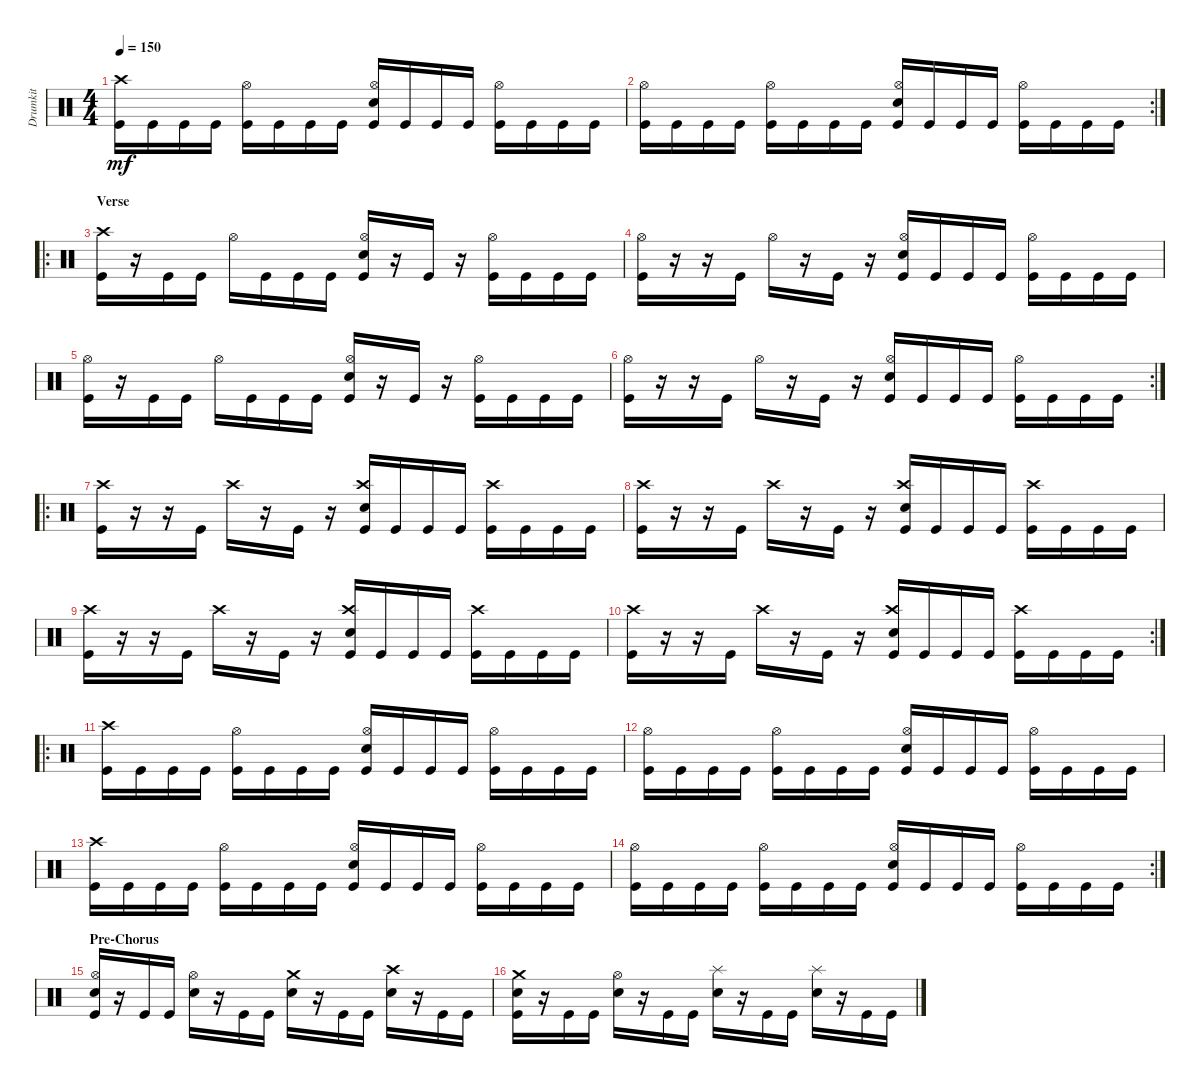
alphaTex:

\track ("Drumkit" "Drumkit") {instrument percussion}
\staff {score}
\articulation defaults
\ts (4 4)
\tempo 150
\clef neutral
\ks c
("Kick (hit)" "Crash high (hit)").16{dy mf} "Kick (hit)".16 "Kick (hit)".16 "Kick (hit)".16 ("Kick (hit)" "Hi-Hat (open)").16 "Kick (hit)".16 "Kick (hit)".16 "Kick (hit)".16 ("Kick (hit)" "Hi-Hat (open)" "Snare (hit) 2").16 "Kick (hit)".16 "Kick (hit)".16 "Kick (hit)".16 ("Kick (hit)" "Hi-Hat (open)").16 "Kick (hit)".16 "Kick (hit)".16 "Kick (hit)".16 |
\rc 2
("Kick (hit)" "Hi-Hat (open)").16 "Kick (hit)".16 "Kick (hit)".16 "Kick (hit)".16 ("Kick (hit)" "Hi-Hat (open)").16 "Kick (hit)".16 "Kick (hit)".16 "Kick (hit)".16 ("Kick (hit)" "Hi-Hat (open)" "Snare (hit) 2").16 "Kick (hit)".16 "Kick (hit)".16 "Kick (hit)".16 ("Kick (hit)" "Hi-Hat (open)").16 "Kick (hit)".16 "Kick (hit)".16 "Kick (hit)".16 |
\ro
\section ("" "Verse")
("Kick (hit)" "Crash high (hit)").16 r.16 "Kick (hit)".16 "Kick (hit)".16 "Hi-Hat (open)".16 "Kick (hit)".16 "Kick (hit)".16 "Kick (hit)".16 ("Kick (hit)" "Snare (hit) 2" "Hi-Hat (open)").16 r.16 "Kick (hit)".16 r.16 ("Kick (hit)" "Hi-Hat (open)").16 "Kick (hit)".16 "Kick (hit)".16 "Kick (hit)".16 |
("Kick (hit)" "Hi-Hat (open)").16 r.16 r.16 "Kick (hit)".16 "Hi-Hat (open)".16 r.16 "Kick (hit)".16 r.16 ("Snare (hit) 2" "Kick (hit)" "Hi-Hat (open)").16 "Kick (hit)".16 "Kick (hit)".16 "Kick (hit)".16 ("Kick (hit)" "Hi-Hat (open)").16 "Kick (hit)".16 "Kick (hit)".16 "Kick (hit)".16 |
("Kick (hit)" "Hi-Hat (open)").16 r.16 "Kick (hit)".16 "Kick (hit)".16 "Hi-Hat (open)".16 "Kick (hit)".16 "Kick (hit)".16 "Kick (hit)".16 ("Kick (hit)" "Snare (hit) 2" "Hi-Hat (open)").16 r.16 "Kick (hit)".16 r.16 ("Kick (hit)" "Hi-Hat (open)").16 "Kick (hit)".16 "Kick (hit)".16 "Kick (hit)".16 |
\rc 2
("Kick (hit)" "Hi-Hat (open)").16 r.16 r.16 "Kick (hit)".16 "Hi-Hat (open)".16 r.16 "Kick (hit)".16 r.16 ("Snare (hit) 2" "Kick (hit)" "Hi-Hat (open)").16 "Kick (hit)".16 "Kick (hit)".16 "Kick (hit)".16 ("Kick (hit)" "Hi-Hat (open)").16 "Kick (hit)".16 "Kick (hit)".16 "Kick (hit)".16 |
\ro
("Kick (hit)" "Crash high (hit)").16 r.16 r.16 "Kick (hit)".16 "Crash high (hit)".16 r.16 "Kick (hit)".16 r.16 ("Snare (hit) 2" "Kick (hit)" "Crash high (hit)").16 "Kick (hit)".16 "Kick (hit)".16 "Kick (hit)".16 ("Crash high (hit)" "Kick (hit)").16 "Kick (hit)".16 "Kick (hit)".16 "Kick (hit)".16 |
("Kick (hit)" "Crash high (hit)").16 r.16 r.16 "Kick (hit)".16 "Crash high (hit)".16 r.16 "Kick (hit)".16 r.16 ("Snare (hit) 2" "Kick (hit)" "Crash high (hit)").16 "Kick (hit)".16 "Kick (hit)".16 "Kick (hit)".16 ("Crash high (hit)" "Kick (hit)").16 "Kick (hit)".16 "Kick (hit)".16 "Kick (hit)".16 |
("Kick (hit)" "Crash high (hit)").16 r.16 r.16 "Kick (hit)".16 "Crash high (hit)".16 r.16 "Kick (hit)".16 r.16 ("Snare (hit) 2" "Kick (hit)" "Crash high (hit)").16 "Kick (hit)".16 "Kick (hit)".16 "Kick (hit)".16 ("Crash high (hit)" "Kick (hit)").16 "Kick (hit)".16 "Kick (hit)".16 "Kick (hit)".16 |
\rc 2
("Kick (hit)" "Crash high (hit)").16 r.16 r.16 "Kick (hit)".16 "Crash high (hit)".16 r.16 "Kick (hit)".16 r.16 ("Snare (hit) 2" "Kick (hit)" "Crash high (hit)").16 "Kick (hit)".16 "Kick (hit)".16 "Kick (hit)".16 ("Crash high (hit)" "Kick (hit)").16 "Kick (hit)".16 "Kick (hit)".16 "Kick (hit)".16 |
\ro
("Kick (hit)" "Crash high (hit)").16 "Kick (hit)".16 "Kick (hit)".16 "Kick (hit)".16 ("Kick (hit)" "Hi-Hat (open)").16 "Kick (hit)".16 "Kick (hit)".16 "Kick (hit)".16 ("Kick (hit)" "Hi-Hat (open)" "Snare (hit) 2").16 "Kick (hit)".16 "Kick (hit)".16 "Kick (hit)".16 ("Kick (hit)" "Hi-Hat (open)").16 "Kick (hit)".16 "Kick (hit)".16 "Kick (hit)".16 |
("Kick (hit)" "Hi-Hat (open)").16 "Kick (hit)".16 "Kick (hit)".16 "Kick (hit)".16 ("Kick (hit)" "Hi-Hat (open)").16 "Kick (hit)".16 "Kick (hit)".16 "Kick (hit)".16 ("Kick (hit)" "Hi-Hat (open)" "Snare (hit) 2").16 "Kick (hit)".16 "Kick (hit)".16 "Kick (hit)".16 ("Kick (hit)" "Hi-Hat (open)").16 "Kick (hit)".16 "Kick (hit)".16 "Kick (hit)".16 |
("Kick (hit)" "Crash high (hit)").16 "Kick (hit)".16 "Kick (hit)".16 "Kick (hit)".16 ("Kick (hit)" "Hi-Hat (open)").16 "Kick (hit)".16 "Kick (hit)".16 "Kick (hit)".16 ("Kick (hit)" "Hi-Hat (open)" "Snare (hit) 2").16 "Kick (hit)".16 "Kick (hit)".16 "Kick (hit)".16 ("Kick (hit)" "Hi-Hat (open)").16 "Kick (hit)".16 "Kick (hit)".16 "Kick (hit)".16 |
\rc 2
("Kick (hit)" "Hi-Hat (open)").16 "Kick (hit)".16 "Kick (hit)".16 "Kick (hit)".16 ("Kick (hit)" "Hi-Hat (open)").16 "Kick (hit)".16 "Kick (hit)".16 "Kick (hit)".16 ("Kick (hit)" "Hi-Hat (open)" "Snare (hit) 2").16 "Kick (hit)".16 "Kick (hit)".16 "Kick (hit)".16 ("Kick (hit)" "Hi-Hat (open)").16 "Kick (hit)".16 "Kick (hit)".16 "Kick (hit)".16 |
\section ("" "Pre-Chorus")
("Snare (hit) 2" "Kick (hit)" "Hi-Hat (open)").16 r.16 "Kick (hit)".16 "Kick (hit)".16 ("Snare (hit) 2" "Hi-Hat (open)").16 r.16 "Kick (hit)".16 "Kick (hit)".16 ("Snare (hit) 2" "Crash medium (hit)").16 r.16 "Kick (hit)".16 "Kick (hit)".16 ("Snare (hit) 2" "Crash high (hit)").16 r.16 "Kick (hit)".16 "Kick (hit)".16 |
("Snare (hit) 2" "Kick (hit)" "Crash medium (hit)").16 r.16 "Kick (hit)".16 "Kick (hit)".16 ("Snare (hit) 2" "Hi-Hat (open)").16 r.16 "Kick (hit)".16 "Kick (hit)".16 ("Snare (hit) 2" "Splash (hit)").16 r.16 "Kick (hit)".16 "Kick (hit)".16 ("Snare (hit) 2" "Splash (hit)").16 r.16 "Kick (hit)".16 "Kick (hit)".16
